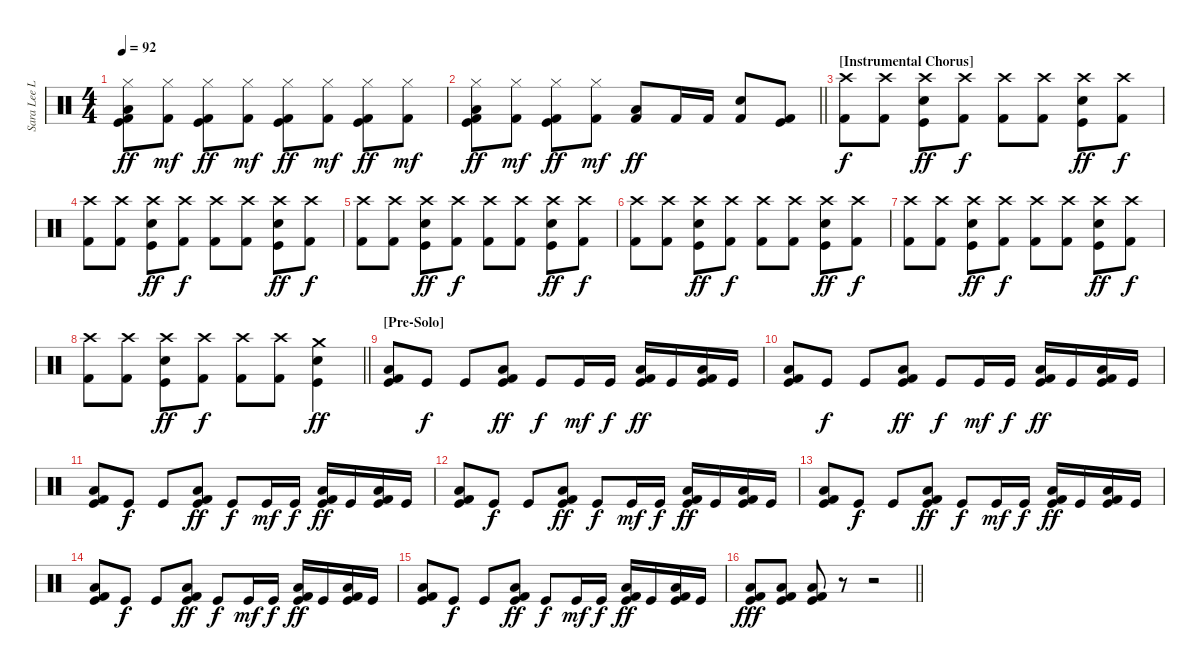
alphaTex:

\track ("Sara Lee Lucas (Drums)" "Sara Lee L") {instrument percussion}
\staff {score}
\articulation defaults
\ts (4 4)
\tempo 92
\clef neutral
\ks c
("Hi-Hat (closed)" "Low Floor Tom (hit)" "Kick (hit) 2" "Kick (hit)").8{dy ff} ("Hi-Hat (closed)" "Kick (hit) 2").8{dy mf} ("Hi-Hat (closed)" "Kick (hit) 2" "Kick (hit)").8{dy ff} ("Hi-Hat (closed)" "Kick (hit) 2").8{dy mf} ("Hi-Hat (closed)" "Kick (hit) 2" "Kick (hit)").8{dy ff} ("Hi-Hat (closed)" "Kick (hit) 2").8{dy mf} ("Hi-Hat (closed)" "Kick (hit) 2" "Kick (hit)").8{dy ff} ("Hi-Hat (closed)" "Kick (hit) 2").8{dy mf} |
\barLineRight lightlight
("Hi-Hat (closed)" "Low Floor Tom (hit)" "Kick (hit) 2" "Kick (hit)").8{dy ff} ("Hi-Hat (closed)" "Kick (hit) 2").8{dy mf} ("Hi-Hat (closed)" "Kick (hit) 2" "Kick (hit)").8{dy ff} ("Hi-Hat (closed)" "Kick (hit) 2").8{dy mf} ("Low Floor Tom (hit)" "Kick (hit) 2").8{dy ff} "Kick (hit) 2".16 "Kick (hit) 2".16 ("Snare (hit) 2" "Kick (hit) 2").8 ("Kick (hit) 2" "Kick (hit)").8 |
\section ("" "[Instrumental Chorus]")
("Crash high (hit)" "Kick (hit) 2").8{dy f} ("Crash high (hit)" "Kick (hit) 2").8 ("Crash high (hit)" "Snare (hit) 2" "Kick (hit)").8{dy ff} ("Crash high (hit)" "Kick (hit) 2").8{dy f} ("Crash high (hit)" "Kick (hit) 2").8 ("Crash high (hit)" "Kick (hit) 2").8 ("Crash high (hit)" "Snare (hit) 2" "Kick (hit)").8{dy ff} ("Crash high (hit)" "Kick (hit) 2").8{dy f} |
("Crash high (hit)" "Kick (hit) 2").8 ("Crash high (hit)" "Kick (hit) 2").8 ("Crash high (hit)" "Snare (hit) 2" "Kick (hit)").8{dy ff} ("Crash high (hit)" "Kick (hit) 2").8{dy f} ("Crash high (hit)" "Kick (hit) 2").8 ("Crash high (hit)" "Kick (hit) 2").8 ("Crash high (hit)" "Snare (hit) 2" "Kick (hit)").8{dy ff} ("Crash high (hit)" "Kick (hit) 2").8{dy f} |
("Crash high (hit)" "Kick (hit) 2").8 ("Crash high (hit)" "Kick (hit) 2").8 ("Crash high (hit)" "Snare (hit) 2" "Kick (hit)").8{dy ff} ("Crash high (hit)" "Kick (hit) 2").8{dy f} ("Crash high (hit)" "Kick (hit) 2").8 ("Crash high (hit)" "Kick (hit) 2").8 ("Crash high (hit)" "Snare (hit) 2" "Kick (hit)").8{dy ff} ("Crash high (hit)" "Kick (hit) 2").8{dy f} |
("Crash high (hit)" "Kick (hit) 2").8 ("Crash high (hit)" "Kick (hit) 2").8 ("Crash high (hit)" "Snare (hit) 2" "Kick (hit)").8{dy ff} ("Crash high (hit)" "Kick (hit) 2").8{dy f} ("Crash high (hit)" "Kick (hit) 2").8 ("Crash high (hit)" "Kick (hit) 2").8 ("Crash high (hit)" "Snare (hit) 2" "Kick (hit)").8{dy ff} ("Crash high (hit)" "Kick (hit) 2").8{dy f} |
("Crash high (hit)" "Kick (hit) 2").8 ("Crash high (hit)" "Kick (hit) 2").8 ("Crash high (hit)" "Snare (hit) 2" "Kick (hit)").8{dy ff} ("Crash high (hit)" "Kick (hit) 2").8{dy f} ("Crash high (hit)" "Kick (hit) 2").8 ("Crash high (hit)" "Kick (hit) 2").8 ("Crash high (hit)" "Snare (hit) 2" "Kick (hit)").8{dy ff} ("Crash high (hit)" "Kick (hit) 2").8{dy f} |
\barLineRight lightlight
("Crash high (hit)" "Kick (hit) 2").8 ("Crash high (hit)" "Kick (hit) 2").8 ("Crash high (hit)" "Snare (hit) 2" "Kick (hit)").8{dy ff} ("Crash high (hit)" "Kick (hit) 2").8{dy f} ("Crash high (hit)" "Kick (hit) 2").8 ("Crash high (hit)" "Kick (hit) 2").8 ("Crash medium (hit)" "Snare (hit) 2" "Kick (hit)").4{dy ff} |
\section ("" "[Pre-Solo]")
("Low Floor Tom (hit)" "Kick (hit) 2" "Kick (hit)").8 "Kick (hit)".8{dy f} "Kick (hit)".8 ("Low Floor Tom (hit)" "Kick (hit) 2" "Kick (hit)").8{dy ff} "Kick (hit)".8{dy f} "Kick (hit)".16{dy mf} "Kick (hit)".16{dy f} ("Low Floor Tom (hit)" "Kick (hit) 2" "Kick (hit)").16{dy ff} "Kick (hit)".16 ("Low Floor Tom (hit)" "Kick (hit) 2" "Kick (hit)").16 "Kick (hit)".16 |
("Low Floor Tom (hit)" "Kick (hit) 2" "Kick (hit)").8 "Kick (hit)".8{dy f} "Kick (hit)".8 ("Low Floor Tom (hit)" "Kick (hit) 2" "Kick (hit)").8{dy ff} "Kick (hit)".8{dy f} "Kick (hit)".16{dy mf} "Kick (hit)".16{dy f} ("Low Floor Tom (hit)" "Kick (hit) 2" "Kick (hit)").16{dy ff} "Kick (hit)".16 ("Low Floor Tom (hit)" "Kick (hit) 2" "Kick (hit)").16 "Kick (hit)".16 |
("Low Floor Tom (hit)" "Kick (hit) 2" "Kick (hit)").8 "Kick (hit)".8{dy f} "Kick (hit)".8 ("Low Floor Tom (hit)" "Kick (hit) 2" "Kick (hit)").8{dy ff} "Kick (hit)".8{dy f} "Kick (hit)".16{dy mf} "Kick (hit)".16{dy f} ("Low Floor Tom (hit)" "Kick (hit) 2" "Kick (hit)").16{dy ff} "Kick (hit)".16 ("Low Floor Tom (hit)" "Kick (hit) 2" "Kick (hit)").16 "Kick (hit)".16 |
("Low Floor Tom (hit)" "Kick (hit) 2" "Kick (hit)").8 "Kick (hit)".8{dy f} "Kick (hit)".8 ("Low Floor Tom (hit)" "Kick (hit) 2" "Kick (hit)").8{dy ff} "Kick (hit)".8{dy f} "Kick (hit)".16{dy mf} "Kick (hit)".16{dy f} ("Low Floor Tom (hit)" "Kick (hit) 2" "Kick (hit)").16{dy ff} "Kick (hit)".16 ("Low Floor Tom (hit)" "Kick (hit) 2" "Kick (hit)").16 "Kick (hit)".16 |
("Low Floor Tom (hit)" "Kick (hit) 2" "Kick (hit)").8 "Kick (hit)".8{dy f} "Kick (hit)".8 ("Low Floor Tom (hit)" "Kick (hit) 2" "Kick (hit)").8{dy ff} "Kick (hit)".8{dy f} "Kick (hit)".16{dy mf} "Kick (hit)".16{dy f} ("Low Floor Tom (hit)" "Kick (hit) 2" "Kick (hit)").16{dy ff} "Kick (hit)".16 ("Low Floor Tom (hit)" "Kick (hit) 2" "Kick (hit)").16 "Kick (hit)".16 |
("Low Floor Tom (hit)" "Kick (hit) 2" "Kick (hit)").8 "Kick (hit)".8{dy f} "Kick (hit)".8 ("Low Floor Tom (hit)" "Kick (hit) 2" "Kick (hit)").8{dy ff} "Kick (hit)".8{dy f} "Kick (hit)".16{dy mf} "Kick (hit)".16{dy f} ("Low Floor Tom (hit)" "Kick (hit) 2" "Kick (hit)").16{dy ff} "Kick (hit)".16 ("Low Floor Tom (hit)" "Kick (hit) 2" "Kick (hit)").16 "Kick (hit)".16 |
("Low Floor Tom (hit)" "Kick (hit) 2" "Kick (hit)").8 "Kick (hit)".8{dy f} "Kick (hit)".8 ("Low Floor Tom (hit)" "Kick (hit) 2" "Kick (hit)").8{dy ff} "Kick (hit)".8{dy f} "Kick (hit)".16{dy mf} "Kick (hit)".16{dy f} ("Low Floor Tom (hit)" "Kick (hit) 2" "Kick (hit)").16{dy ff} "Kick (hit)".16 ("Low Floor Tom (hit)" "Kick (hit) 2" "Kick (hit)").16 "Kick (hit)".16 |
\barLineRight lightlight
("Low Floor Tom (hit)" "Kick (hit) 2" "Kick (hit)").8{dy fff} ("Low Floor Tom (hit)" "Kick (hit) 2" "Kick (hit)").8 ("Low Floor Tom (hit)" "Kick (hit) 2" "Kick (hit)").8 r.8 r.2
